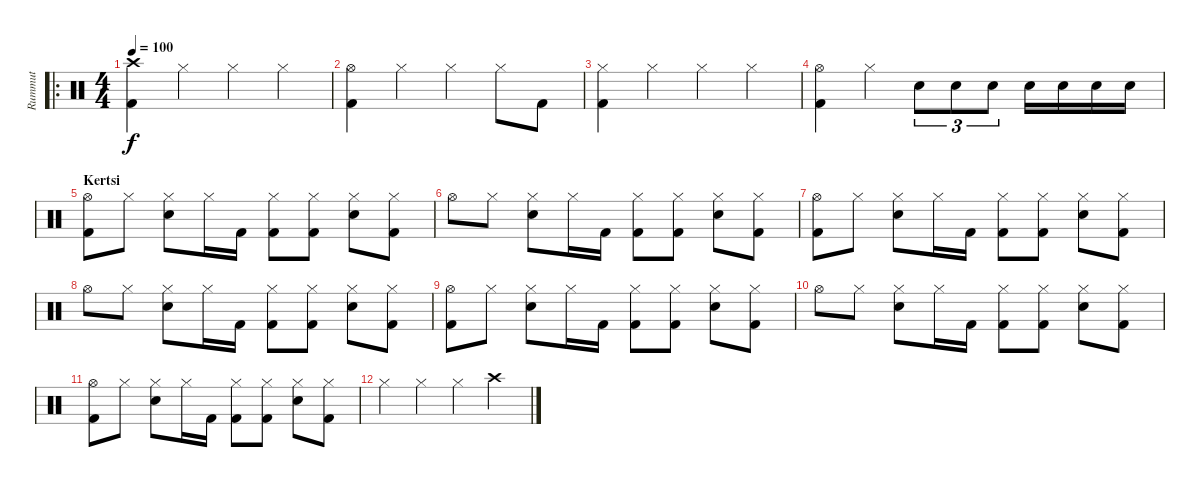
\track ("Rummut" "Rummut") {instrument percussion}
\staff {score}
\articulation defaults
\ro
\ts (4 4)
\tempo 100
\clef neutral
\ks c
("Crash high (hit)" "Kick (hit) 2").4{dy f} "Hi-Hat (closed)".4 "Hi-Hat (closed)".4 "Hi-Hat (closed)".4 |
("Hi-Hat (open)" "Kick (hit) 2").4 "Hi-Hat (closed)".4 "Hi-Hat (closed)".4 "Hi-Hat (closed)".8 "Kick (hit) 2".8 |
("Hi-Hat (closed)" "Kick (hit) 2").4 "Hi-Hat (closed)".4 "Hi-Hat (closed)".4 "Hi-Hat (closed)".4 |
("Hi-Hat (open)" "Kick (hit) 2").4 "Hi-Hat (closed)".4 "Snare (hit) 2".8{tu (3 2)} "Snare (hit) 2".8{tu (3 2)} "Snare (hit) 2".8{tu (3 2)} "Snare (hit) 2".16 "Snare (hit) 2".16 "Snare (hit) 2".16 "Snare (hit) 2".16 |
\section ("" "Kertsi")
("Hi-Hat (open)" "Kick (hit) 2").8 "Hi-Hat (closed)".8 ("Hi-Hat (closed)" "Snare (hit) 2").8 "Hi-Hat (closed)".16 "Kick (hit) 2".16 ("Hi-Hat (closed)" "Kick (hit) 2").8 ("Hi-Hat (closed)" "Kick (hit) 2").8 ("Hi-Hat (closed)" "Snare (hit) 2").8 ("Hi-Hat (closed)" "Kick (hit) 2").8 |
"Hi-Hat (open)".8 "Hi-Hat (closed)".8 ("Hi-Hat (closed)" "Snare (hit) 2").8 "Hi-Hat (closed)".16 "Kick (hit) 2".16 ("Hi-Hat (closed)" "Kick (hit) 2").8 ("Hi-Hat (closed)" "Kick (hit) 2").8 ("Hi-Hat (closed)" "Snare (hit) 2").8 ("Hi-Hat (closed)" "Kick (hit) 2").8 |
("Hi-Hat (open)" "Kick (hit) 2").8 "Hi-Hat (closed)".8 ("Hi-Hat (closed)" "Snare (hit) 2").8 "Hi-Hat (closed)".16 "Kick (hit) 2".16 ("Hi-Hat (closed)" "Kick (hit) 2").8 ("Hi-Hat (closed)" "Kick (hit) 2").8 ("Hi-Hat (closed)" "Snare (hit) 2").8 ("Hi-Hat (closed)" "Kick (hit) 2").8 |
"Hi-Hat (open)".8 "Hi-Hat (closed)".8 ("Hi-Hat (closed)" "Snare (hit) 2").8 "Hi-Hat (closed)".16 "Kick (hit) 2".16 ("Hi-Hat (closed)" "Kick (hit) 2").8 ("Hi-Hat (closed)" "Kick (hit) 2").8 ("Hi-Hat (closed)" "Snare (hit) 2").8 ("Hi-Hat (closed)" "Kick (hit) 2").8 |
("Hi-Hat (open)" "Kick (hit) 2").8 "Hi-Hat (closed)".8 ("Hi-Hat (closed)" "Snare (hit) 2").8 "Hi-Hat (closed)".16 "Kick (hit) 2".16 ("Hi-Hat (closed)" "Kick (hit) 2").8 ("Hi-Hat (closed)" "Kick (hit) 2").8 ("Hi-Hat (closed)" "Snare (hit) 2").8 ("Hi-Hat (closed)" "Kick (hit) 2").8 |
"Hi-Hat (open)".8 "Hi-Hat (closed)".8 ("Hi-Hat (closed)" "Snare (hit) 2").8 "Hi-Hat (closed)".16 "Kick (hit) 2".16 ("Hi-Hat (closed)" "Kick (hit) 2").8 ("Hi-Hat (closed)" "Kick (hit) 2").8 ("Hi-Hat (closed)" "Snare (hit) 2").8 ("Hi-Hat (closed)" "Kick (hit) 2").8 |
("Hi-Hat (open)" "Kick (hit) 2").8 "Hi-Hat (closed)".8 ("Hi-Hat (closed)" "Snare (hit) 2").8 "Hi-Hat (closed)".16 "Kick (hit) 2".16 ("Hi-Hat (closed)" "Kick (hit) 2").8 ("Hi-Hat (closed)" "Kick (hit) 2").8 ("Hi-Hat (closed)" "Snare (hit) 2").8 ("Hi-Hat (closed)" "Kick (hit) 2").8 |
"Hi-Hat (closed)".4 "Hi-Hat (closed)".4 "Hi-Hat (closed)".4 "Crash high (hit)".4
